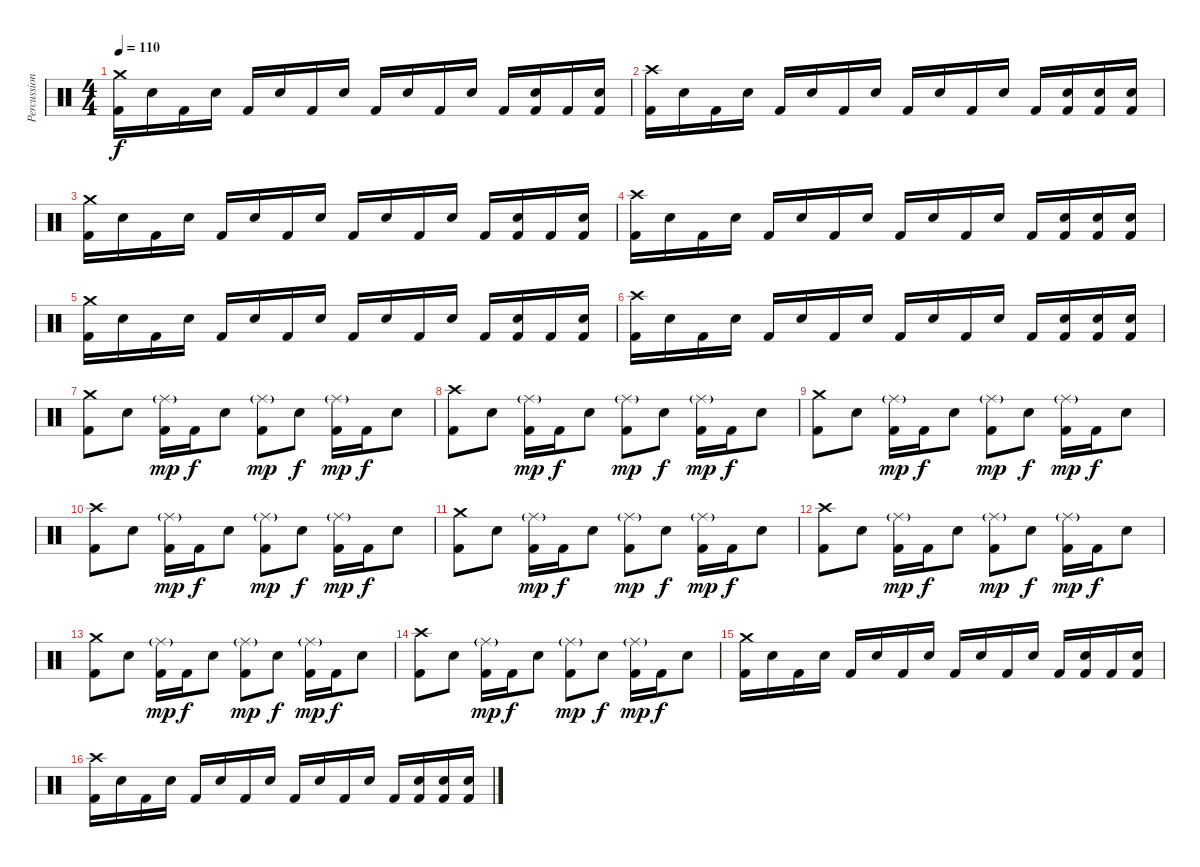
\track ("Percussion" "Percussion") {instrument percussion}
\staff {score}
\articulation defaults
\ts (4 4)
\tempo 110
\clef neutral
\ks c
("Crash medium (hit)" "Kick (hit) 2").16{dy f} "Electric Snare (hit)".16 "Kick (hit) 2".16 "Electric Snare (hit)".16 "Kick (hit) 2".16 "Electric Snare (hit)".16 "Kick (hit) 2".16 "Electric Snare (hit)".16 "Kick (hit) 2".16 "Electric Snare (hit)".16 "Kick (hit) 2".16 "Electric Snare (hit)".16 "Kick (hit) 2".16 ("Electric Snare (hit)" "Kick (hit) 2").16 "Kick (hit) 2".16 ("Electric Snare (hit)" "Kick (hit) 2").16 |
("Crash high (hit)" "Kick (hit) 2").16 "Electric Snare (hit)".16 "Kick (hit) 2".16 "Electric Snare (hit)".16 "Kick (hit) 2".16 "Electric Snare (hit)".16 "Kick (hit) 2".16 "Electric Snare (hit)".16 "Kick (hit) 2".16 "Electric Snare (hit)".16 "Kick (hit) 2".16 "Electric Snare (hit)".16 "Kick (hit) 2".16 ("Electric Snare (hit)" "Kick (hit) 2").16 ("Electric Snare (hit)" "Kick (hit) 2").16 ("Electric Snare (hit)" "Kick (hit) 2").16 |
("Crash medium (hit)" "Kick (hit) 2").16 "Electric Snare (hit)".16 "Kick (hit) 2".16 "Electric Snare (hit)".16 "Kick (hit) 2".16 "Electric Snare (hit)".16 "Kick (hit) 2".16 "Electric Snare (hit)".16 "Kick (hit) 2".16 "Electric Snare (hit)".16 "Kick (hit) 2".16 "Electric Snare (hit)".16 "Kick (hit) 2".16 ("Electric Snare (hit)" "Kick (hit) 2").16 "Kick (hit) 2".16 ("Electric Snare (hit)" "Kick (hit) 2").16 |
("Crash high (hit)" "Kick (hit) 2").16 "Electric Snare (hit)".16 "Kick (hit) 2".16 "Electric Snare (hit)".16 "Kick (hit) 2".16 "Electric Snare (hit)".16 "Kick (hit) 2".16 "Electric Snare (hit)".16 "Kick (hit) 2".16 "Electric Snare (hit)".16 "Kick (hit) 2".16 "Electric Snare (hit)".16 "Kick (hit) 2".16 ("Electric Snare (hit)" "Kick (hit) 2").16 ("Electric Snare (hit)" "Kick (hit) 2").16 ("Electric Snare (hit)" "Kick (hit) 2").16 |
("Crash medium (hit)" "Kick (hit) 2").16 "Electric Snare (hit)".16 "Kick (hit) 2".16 "Electric Snare (hit)".16 "Kick (hit) 2".16 "Electric Snare (hit)".16 "Kick (hit) 2".16 "Electric Snare (hit)".16 "Kick (hit) 2".16 "Electric Snare (hit)".16 "Kick (hit) 2".16 "Electric Snare (hit)".16 "Kick (hit) 2".16 ("Electric Snare (hit)" "Kick (hit) 2").16 "Kick (hit) 2".16 ("Electric Snare (hit)" "Kick (hit) 2").16 |
("Crash high (hit)" "Kick (hit) 2").16 "Electric Snare (hit)".16 "Kick (hit) 2".16 "Electric Snare (hit)".16 "Kick (hit) 2".16 "Electric Snare (hit)".16 "Kick (hit) 2".16 "Electric Snare (hit)".16 "Kick (hit) 2".16 "Electric Snare (hit)".16 "Kick (hit) 2".16 "Electric Snare (hit)".16 "Kick (hit) 2".16 ("Electric Snare (hit)" "Kick (hit) 2").16 ("Electric Snare (hit)" "Kick (hit) 2").16 ("Electric Snare (hit)" "Kick (hit) 2").16 |
("Crash medium (hit)" "Kick (hit) 2").8 "Electric Snare (hit)".8 ("Ride (middle)"{g} "Kick (hit) 2").16{dy mp} "Kick (hit) 2".16{dy f} "Electric Snare (hit)".8 ("Ride (middle)"{g} "Kick (hit) 2").8{dy mp} "Electric Snare (hit)".8{dy f} ("Ride (middle)"{g} "Kick (hit) 2").16{dy mp} "Kick (hit) 2".16{dy f} "Electric Snare (hit)".8 |
("Crash high (hit)" "Kick (hit) 2").8 "Electric Snare (hit)".8 ("Ride (middle)"{g} "Kick (hit) 2").16{dy mp} "Kick (hit) 2".16{dy f} "Electric Snare (hit)".8 ("Ride (middle)"{g} "Kick (hit) 2").8{dy mp} "Electric Snare (hit)".8{dy f} ("Ride (middle)"{g} "Kick (hit) 2").16{dy mp} "Kick (hit) 2".16{dy f} "Electric Snare (hit)".8 |
("Crash medium (hit)" "Kick (hit) 2").8 "Electric Snare (hit)".8 ("Ride (middle)"{g} "Kick (hit) 2").16{dy mp} "Kick (hit) 2".16{dy f} "Electric Snare (hit)".8 ("Ride (middle)"{g} "Kick (hit) 2").8{dy mp} "Electric Snare (hit)".8{dy f} ("Ride (middle)"{g} "Kick (hit) 2").16{dy mp} "Kick (hit) 2".16{dy f} "Electric Snare (hit)".8 |
("Crash high (hit)" "Kick (hit) 2").8 "Electric Snare (hit)".8 ("Ride (middle)"{g} "Kick (hit) 2").16{dy mp} "Kick (hit) 2".16{dy f} "Electric Snare (hit)".8 ("Ride (middle)"{g} "Kick (hit) 2").8{dy mp} "Electric Snare (hit)".8{dy f} ("Ride (middle)"{g} "Kick (hit) 2").16{dy mp} "Kick (hit) 2".16{dy f} "Electric Snare (hit)".8 |
("Crash medium (hit)" "Kick (hit) 2").8 "Electric Snare (hit)".8 ("Ride (middle)"{g} "Kick (hit) 2").16{dy mp} "Kick (hit) 2".16{dy f} "Electric Snare (hit)".8 ("Ride (middle)"{g} "Kick (hit) 2").8{dy mp} "Electric Snare (hit)".8{dy f} ("Ride (middle)"{g} "Kick (hit) 2").16{dy mp} "Kick (hit) 2".16{dy f} "Electric Snare (hit)".8 |
("Crash high (hit)" "Kick (hit) 2").8 "Electric Snare (hit)".8 ("Ride (middle)"{g} "Kick (hit) 2").16{dy mp} "Kick (hit) 2".16{dy f} "Electric Snare (hit)".8 ("Ride (middle)"{g} "Kick (hit) 2").8{dy mp} "Electric Snare (hit)".8{dy f} ("Ride (middle)"{g} "Kick (hit) 2").16{dy mp} "Kick (hit) 2".16{dy f} "Electric Snare (hit)".8 |
("Crash medium (hit)" "Kick (hit) 2").8 "Electric Snare (hit)".8 ("Ride (middle)"{g} "Kick (hit) 2").16{dy mp} "Kick (hit) 2".16{dy f} "Electric Snare (hit)".8 ("Ride (middle)"{g} "Kick (hit) 2").8{dy mp} "Electric Snare (hit)".8{dy f} ("Ride (middle)"{g} "Kick (hit) 2").16{dy mp} "Kick (hit) 2".16{dy f} "Electric Snare (hit)".8 |
("Crash high (hit)" "Kick (hit) 2").8 "Electric Snare (hit)".8 ("Ride (middle)"{g} "Kick (hit) 2").16{dy mp} "Kick (hit) 2".16{dy f} "Electric Snare (hit)".8 ("Ride (middle)"{g} "Kick (hit) 2").8{dy mp} "Electric Snare (hit)".8{dy f} ("Ride (middle)"{g} "Kick (hit) 2").16{dy mp} "Kick (hit) 2".16{dy f} "Electric Snare (hit)".8 |
("Crash medium (hit)" "Kick (hit) 2").16 "Electric Snare (hit)".16 "Kick (hit) 2".16 "Electric Snare (hit)".16 "Kick (hit) 2".16 "Electric Snare (hit)".16 "Kick (hit) 2".16 "Electric Snare (hit)".16 "Kick (hit) 2".16 "Electric Snare (hit)".16 "Kick (hit) 2".16 "Electric Snare (hit)".16 "Kick (hit) 2".16 ("Electric Snare (hit)" "Kick (hit) 2").16 "Kick (hit) 2".16 ("Electric Snare (hit)" "Kick (hit) 2").16 |
("Crash high (hit)" "Kick (hit) 2").16 "Electric Snare (hit)".16 "Kick (hit) 2".16 "Electric Snare (hit)".16 "Kick (hit) 2".16 "Electric Snare (hit)".16 "Kick (hit) 2".16 "Electric Snare (hit)".16 "Kick (hit) 2".16 "Electric Snare (hit)".16 "Kick (hit) 2".16 "Electric Snare (hit)".16 "Kick (hit) 2".16 ("Electric Snare (hit)" "Kick (hit) 2").16 ("Electric Snare (hit)" "Kick (hit) 2").16 ("Electric Snare (hit)" "Kick (hit) 2").16
